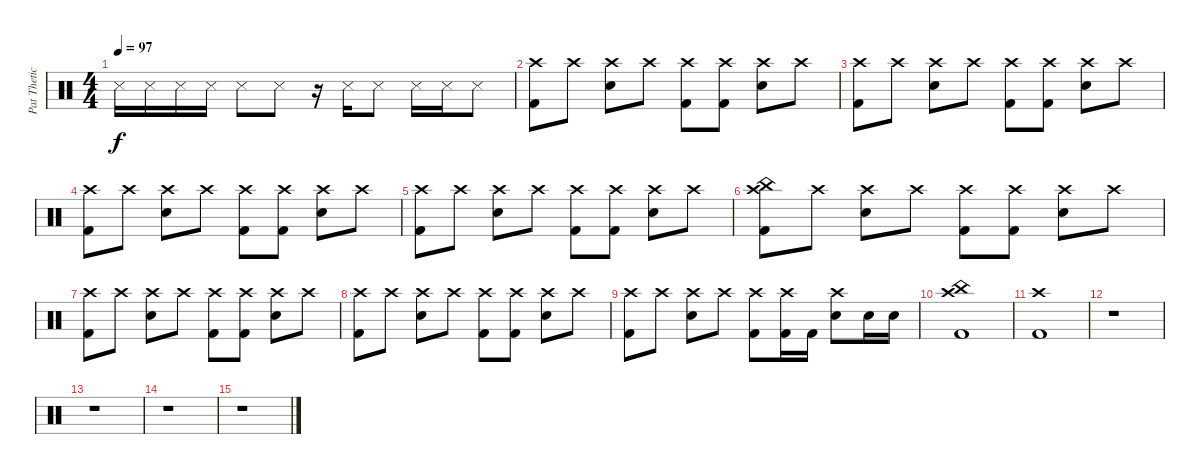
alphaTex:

\track ("Pat Thetic" "Pat Thetic") {instrument percussion}
\staff {score}
\articulation defaults
\ts (4 4)
\tempo 97
\clef neutral
\ks c "Metronome (hit)".16{dy f} "Metronome (hit)".16 "Metronome (hit)".16 "Metronome (hit)".16 "Metronome (hit)".8 "Metronome (hit)".8
r.16 "Metronome (hit)".16 "Metronome (hit)".8 "Metronome (hit)".16 "Metronome (hit)".16 "Metronome (hit)".8 |
("Crash high (hit)" "Kick (hit) 2").8 "Crash high (hit)".8 ("Crash high (hit)" "Electric Snare (hit)").8 "Crash high (hit)".8 ("Crash high (hit)" "Kick (hit) 2").8 ("Crash high (hit)" "Kick (hit) 2").8 ("Crash high (hit)" "Electric Snare (hit)").8 "Crash high (hit)".8 |
("Crash high (hit)" "Kick (hit) 2").8 "Crash high (hit)".8 ("Crash high (hit)" "Electric Snare (hit)").8 "Crash high (hit)".8 ("Crash high (hit)" "Kick (hit) 2").8 ("Crash high (hit)" "Kick (hit) 2").8 ("Crash high (hit)" "Electric Snare (hit)").8 "Crash high (hit)".8 |
("Crash high (hit)" "Kick (hit) 2").8 "Crash high (hit)".8 ("Crash high (hit)" "Electric Snare (hit)").8 "Crash high (hit)".8 ("Crash high (hit)" "Kick (hit) 2").8 ("Crash high (hit)" "Kick (hit) 2").8 ("Crash high (hit)" "Electric Snare (hit)").8 "Crash high (hit)".8 |
("Crash high (hit)" "Kick (hit) 2").8 "Crash high (hit)".8 ("Crash high (hit)" "Electric Snare (hit)").8 "Crash high (hit)".8 ("Crash high (hit)" "Kick (hit) 2").8 ("Crash high (hit)" "Kick (hit) 2").8 ("Crash high (hit)" "Electric Snare (hit)").8 "Crash high (hit)".8 |
("China (hit)" "Crash high (hit)" "Kick (hit) 2").8 "Crash high (hit)".8 ("Crash high (hit)" "Electric Snare (hit)").8 "Crash high (hit)".8 ("Crash high (hit)" "Kick (hit) 2").8 ("Crash high (hit)" "Kick (hit) 2").8 ("Crash high (hit)" "Electric Snare (hit)").8 "Crash high (hit)".8 |
("Crash high (hit)" "Kick (hit) 2").8 "Crash high (hit)".8 ("Crash high (hit)" "Electric Snare (hit)").8 "Crash high (hit)".8 ("Crash high (hit)" "Kick (hit) 2").8 ("Crash high (hit)" "Kick (hit) 2").8 ("Crash high (hit)" "Electric Snare (hit)").8 "Crash high (hit)".8 |
("Crash high (hit)" "Kick (hit) 2").8 "Crash high (hit)".8 ("Crash high (hit)" "Electric Snare (hit)").8 "Crash high (hit)".8 ("Crash high (hit)" "Kick (hit) 2").8 ("Crash high (hit)" "Kick (hit) 2").8 ("Crash high (hit)" "Electric Snare (hit)").8 "Crash high (hit)".8 |
("Crash high (hit)" "Kick (hit) 2").8 "Crash high (hit)".8 ("Crash high (hit)" "Electric Snare (hit)").8 "Crash high (hit)".8 ("Crash high (hit)" "Kick (hit) 2").8 ("Crash high (hit)" "Kick (hit) 2").16 "Kick (hit) 2".16 ("Crash high (hit)" "Electric Snare (hit)").8 "Electric Snare (hit)".16 "Electric Snare (hit)".16 |
("China (hit)" "Crash high (hit)" "Kick (hit) 2").1 |
("Crash high (hit)" "Kick (hit) 2").1 |
r.1 |
r.1 |
r.1 |
r.1
